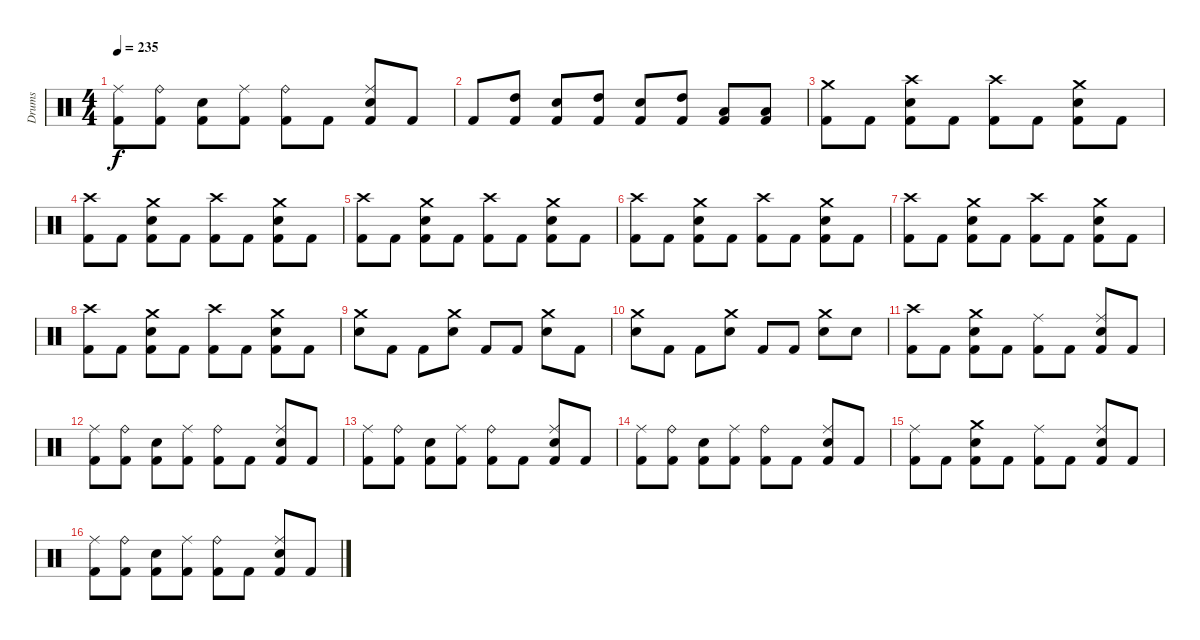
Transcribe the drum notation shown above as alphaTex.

\track ("Drums" "Drums") {instrument percussion}
\staff {score}
\articulation defaults
\ts (4 4)
\tempo 235
\clef neutral
\ks aminor
("Kick (hit) 2" "Ride (middle)").8{dy f} ("Kick (hit) 2" "Ride (bell)").8 ("Kick (hit) 2" "Electric Snare (hit)").8 ("Kick (hit) 2" "Ride (middle)").8 ("Kick (hit) 2" "Ride (bell)").8 "Kick (hit) 2".8 ("Kick (hit) 2" "Electric Snare (hit)" "Ride (middle)").8 "Kick (hit) 2".8 |
"Kick (hit) 2".8 ("High Tom (hit)" "Kick (hit) 2").8 ("Electric Snare (hit)" "Kick (hit) 2").8 ("High Tom (hit)" "Kick (hit) 2").8 ("Electric Snare (hit)" "Kick (hit) 2").8 ("High Tom (hit)" "Kick (hit) 2").8 ("Low Tom (hit)" "Kick (hit) 2").8 ("Low Tom (hit)" "Kick (hit) 2").8 |
("Crash medium (hit)" "Kick (hit) 2").8 "Kick (hit) 2".8 ("Electric Snare (hit)" "Kick (hit) 2" "Crash high (hit)").8 "Kick (hit) 2".8 ("Crash high (hit)" "Kick (hit) 2").8 "Kick (hit) 2".8 ("Electric Snare (hit)" "Kick (hit) 2" "Crash medium (hit)").8 "Kick (hit) 2".8 |
("Crash high (hit)" "Kick (hit) 2").8 "Kick (hit) 2".8 ("Electric Snare (hit)" "Kick (hit) 2" "Crash medium (hit)").8 "Kick (hit) 2".8 ("Crash high (hit)" "Kick (hit) 2").8 "Kick (hit) 2".8 ("Electric Snare (hit)" "Kick (hit) 2" "Crash medium (hit)").8 "Kick (hit) 2".8 |
("Crash high (hit)" "Kick (hit) 2").8 "Kick (hit) 2".8 ("Electric Snare (hit)" "Kick (hit) 2" "Crash medium (hit)").8 "Kick (hit) 2".8 ("Crash high (hit)" "Kick (hit) 2").8 "Kick (hit) 2".8 ("Electric Snare (hit)" "Kick (hit) 2" "Crash medium (hit)").8 "Kick (hit) 2".8 |
("Crash high (hit)" "Kick (hit) 2").8 "Kick (hit) 2".8 ("Electric Snare (hit)" "Kick (hit) 2" "Crash medium (hit)").8 "Kick (hit) 2".8 ("Crash high (hit)" "Kick (hit) 2").8 "Kick (hit) 2".8 ("Electric Snare (hit)" "Kick (hit) 2" "Crash medium (hit)").8 "Kick (hit) 2".8 |
("Crash high (hit)" "Kick (hit) 2").8 "Kick (hit) 2".8 ("Electric Snare (hit)" "Kick (hit) 2" "Crash medium (hit)").8 "Kick (hit) 2".8 ("Crash high (hit)" "Kick (hit) 2").8 "Kick (hit) 2".8 ("Electric Snare (hit)" "Kick (hit) 2" "Crash medium (hit)").8 "Kick (hit) 2".8 |
("Crash high (hit)" "Kick (hit) 2").8 "Kick (hit) 2".8 ("Electric Snare (hit)" "Kick (hit) 2" "Crash medium (hit)").8 "Kick (hit) 2".8 ("Crash high (hit)" "Kick (hit) 2").8 "Kick (hit) 2".8 ("Electric Snare (hit)" "Kick (hit) 2" "Crash medium (hit)").8 "Kick (hit) 2".8 |
("Crash medium (hit)" "Electric Snare (hit)").8 "Kick (hit) 2".8 "Kick (hit) 2".8 ("Crash medium (hit)" "Electric Snare (hit)").8 "Kick (hit) 2".8 "Kick (hit) 2".8 ("Crash medium (hit)" "Electric Snare (hit)").8 "Kick (hit) 2".8 |
("Crash medium (hit)" "Electric Snare (hit)").8 "Kick (hit) 2".8 "Kick (hit) 2".8 ("Crash medium (hit)" "Electric Snare (hit)").8 "Kick (hit) 2".8 "Kick (hit) 2".8 ("Crash medium (hit)" "Electric Snare (hit)").8 "Electric Snare (hit)".8 |
("Kick (hit) 2" "Crash high (hit)").8 "Kick (hit) 2".8 ("Kick (hit) 2" "Crash medium (hit)" "Electric Snare (hit)").8 "Kick (hit) 2".8 ("Kick (hit) 2" "Ride (middle)").8 "Kick (hit) 2".8 ("Kick (hit) 2" "Electric Snare (hit)" "Ride (middle)").8 "Kick (hit) 2".8 |
("Kick (hit) 2" "Ride (middle)").8 ("Kick (hit) 2" "Ride (bell)").8 ("Kick (hit) 2" "Electric Snare (hit)").8 ("Kick (hit) 2" "Ride (middle)").8 ("Kick (hit) 2" "Ride (bell)").8 "Kick (hit) 2".8 ("Kick (hit) 2" "Electric Snare (hit)" "Ride (middle)").8 "Kick (hit) 2".8 |
("Kick (hit) 2" "Ride (middle)").8 ("Kick (hit) 2" "Ride (bell)").8 ("Kick (hit) 2" "Electric Snare (hit)").8 ("Kick (hit) 2" "Ride (middle)").8 ("Kick (hit) 2" "Ride (bell)").8 "Kick (hit) 2".8 ("Kick (hit) 2" "Electric Snare (hit)" "Ride (middle)").8 "Kick (hit) 2".8 |
("Kick (hit) 2" "Ride (middle)").8 ("Kick (hit) 2" "Ride (bell)").8 ("Kick (hit) 2" "Electric Snare (hit)").8 ("Kick (hit) 2" "Ride (middle)").8 ("Kick (hit) 2" "Ride (bell)").8 "Kick (hit) 2".8 ("Kick (hit) 2" "Electric Snare (hit)" "Ride (middle)").8 "Kick (hit) 2".8 |
("Ride (middle)" "Kick (hit) 2").8 "Kick (hit) 2".8 ("Crash medium (hit)" "Electric Snare (hit)" "Kick (hit) 2").8 "Kick (hit) 2".8 ("Ride (middle)" "Kick (hit) 2").8 "Kick (hit) 2".8 ("Ride (middle)" "Electric Snare (hit)" "Kick (hit) 2").8 "Kick (hit) 2".8 |
("Kick (hit) 2" "Ride (middle)").8 ("Kick (hit) 2" "Ride (bell)").8 ("Kick (hit) 2" "Electric Snare (hit)").8 ("Kick (hit) 2" "Ride (middle)").8 ("Kick (hit) 2" "Ride (bell)").8 "Kick (hit) 2".8 ("Kick (hit) 2" "Electric Snare (hit)" "Ride (middle)").8 "Kick (hit) 2".8
